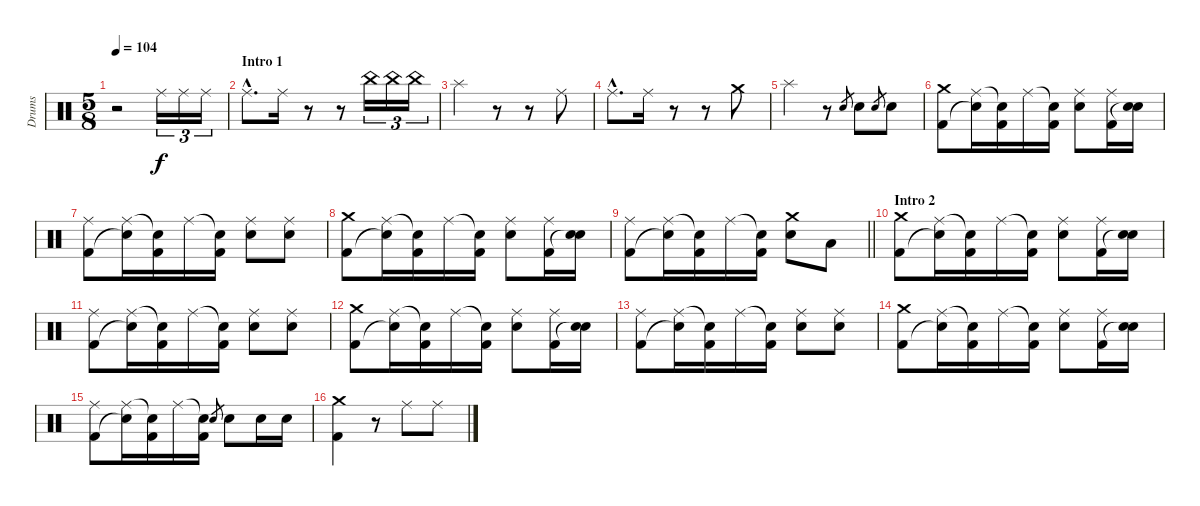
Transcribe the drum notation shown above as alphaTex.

\track ("Drums" "Drums") {instrument percussion}
\staff {score}
\articulation defaults
\ts (5 8)
\tempo 104
\clef neutral
\ks c
r.2{dy f} "Ride (middle)".16{tu (3 2)} "Ride (middle)".16{tu (3 2)} "Ride (middle)".16{tu (3 2)} |
\section ("" "Intro 1")
"Ride (middle)"{hac}.8{d} "Ride (middle)".16 r.8 r.8 "China (hit)".16{tu (3 2)} "China (hit)".16{tu (3 2)} "China (hit)".16{tu (3 2)} |
"Splash (hit)".4 r.8 r.8 "Ride (middle)".8 |
"Ride (middle)"{hac}.8{d} "Ride (middle)".16 r.8 r.8 "Crash medium (hit)".8 |
"Splash (hit)".4 r.8 "Electric Snare (hit)".8{gr} "Electric Snare (hit)".8 "Electric Snare (hit)".8{gr} "Electric Snare (hit)".8 |
("Crash medium (hit)" "Kick (hit) 2").8 ("Ride (middle)" "Snare (hit)"{t}).16 ("Snare (hit)"{t} "Kick (hit) 2").16 "Ride (middle)".16 ("Snare (hit)"{t} "Kick (hit) 2").16 ("Ride (middle)" "Electric Snare (hit)").8 ("Ride (middle)" "Kick (hit) 2").16 ("Electric Snare (hit)" "Snare (hit)"{t}).16 |
("Ride (middle)" "Kick (hit) 2").8 ("Ride (middle)" "Snare (hit)"{t}).16 ("Snare (hit)"{t} "Kick (hit) 2").16 "Ride (middle)".16 ("Snare (hit)"{t} "Kick (hit) 2").16 ("Ride (middle)" "Electric Snare (hit)").8 ("Ride (middle)" "Electric Snare (hit)").8 |
("Crash medium (hit)" "Kick (hit) 2").8 ("Ride (middle)" "Snare (hit)"{t}).16 ("Snare (hit)"{t} "Kick (hit) 2").16 "Ride (middle)".16 ("Snare (hit)"{t} "Kick (hit) 2").16 ("Ride (middle)" "Electric Snare (hit)").8 ("Ride (middle)" "Kick (hit) 2").16 ("Electric Snare (hit)" "Snare (hit)"{t}).16 |
\barLineRight lightlight
("Ride (middle)" "Kick (hit) 2").8 ("Ride (middle)" "Snare (hit)"{t}).16 ("Snare (hit)"{t} "Kick (hit) 2").16 "Ride (middle)".16 ("Snare (hit)"{t} "Kick (hit) 2").16 ("Crash medium (hit)" "Electric Snare (hit)").8 "Low Floor Tom (hit)".8 |
\section ("" "Intro 2")
("Crash medium (hit)" "Kick (hit) 2").8 ("Ride (middle)" "Snare (hit)"{t}).16 ("Snare (hit)"{t} "Kick (hit) 2").16 "Ride (middle)".16 ("Snare (hit)"{t} "Kick (hit) 2").16 ("Ride (middle)" "Electric Snare (hit)").8 ("Ride (middle)" "Kick (hit) 2").16 ("Electric Snare (hit)" "Snare (hit)"{t}).16 |
("Ride (middle)" "Kick (hit) 2").8 ("Ride (middle)" "Snare (hit)"{t}).16 ("Snare (hit)"{t} "Kick (hit) 2").16 "Ride (middle)".16 ("Snare (hit)"{t} "Kick (hit) 2").16 ("Ride (middle)" "Electric Snare (hit)").8 ("Ride (middle)" "Electric Snare (hit)").8 |
("Crash medium (hit)" "Kick (hit) 2").8 ("Ride (middle)" "Snare (hit)"{t}).16 ("Snare (hit)"{t} "Kick (hit) 2").16 "Ride (middle)".16 ("Snare (hit)"{t} "Kick (hit) 2").16 ("Ride (middle)" "Electric Snare (hit)").8 ("Ride (middle)" "Kick (hit) 2").16 ("Electric Snare (hit)" "Snare (hit)"{t}).16 |
("Ride (middle)" "Kick (hit) 2").8 ("Ride (middle)" "Snare (hit)"{t}).16 ("Snare (hit)"{t} "Kick (hit) 2").16 "Ride (middle)".16 ("Snare (hit)"{t} "Kick (hit) 2").16 ("Ride (middle)" "Electric Snare (hit)").8 ("Ride (middle)" "Electric Snare (hit)").8 |
("Crash medium (hit)" "Kick (hit) 2").8 ("Ride (middle)" "Snare (hit)"{t}).16 ("Snare (hit)"{t} "Kick (hit) 2").16 "Ride (middle)".16 ("Snare (hit)"{t} "Kick (hit) 2").16 ("Ride (middle)" "Electric Snare (hit)").8 ("Ride (middle)" "Kick (hit) 2").16 ("Electric Snare (hit)" "Snare (hit)"{t}).16 |
("Ride (middle)" "Kick (hit) 2").8 ("Ride (middle)" "Snare (hit)"{t}).16 ("Snare (hit)"{t} "Kick (hit) 2").16 "Ride (middle)".16 ("Snare (hit)"{t} "Kick (hit) 2").16 "Electric Snare (hit)".8{gr} "Electric Snare (hit)".8 "Electric Snare (hit)".16 "Electric Snare (hit)".16 |
("Crash medium (hit)" "Kick (hit) 2").4 r.8 "Ride (middle)".8 "Ride (middle)".8
